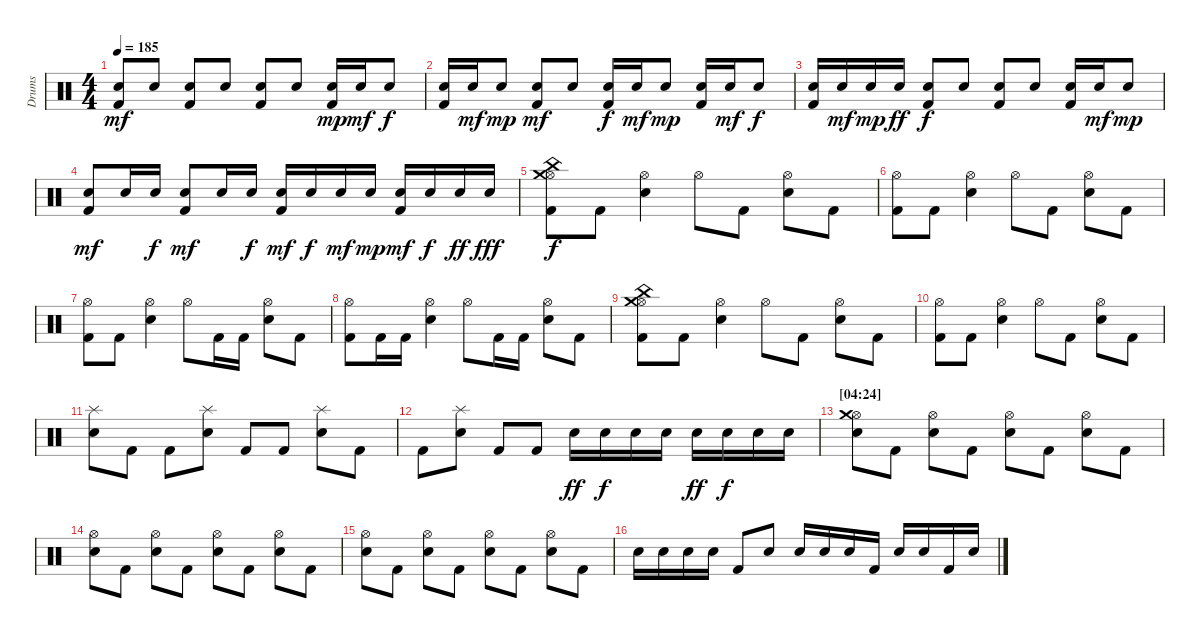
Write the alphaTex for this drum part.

\track ("Drums" "Drums") {instrument percussion}
\staff {score}
\articulation defaults
\ts (4 4)
\tempo 185
\clef neutral
\ks c
("Electric Snare (hit)" "Kick (hit) 2").8{dy mf} "Electric Snare (hit)".8 ("Electric Snare (hit)" "Kick (hit) 2").8 "Electric Snare (hit)".8 ("Electric Snare (hit)" "Kick (hit) 2").8 "Electric Snare (hit)".8 ("Electric Snare (hit)" "Kick (hit) 2").16{dy mp} "Electric Snare (hit)".16{dy mf} "Electric Snare (hit)".8{dy f} |
("Electric Snare (hit)" "Kick (hit) 2").16 "Electric Snare (hit)".16{dy mf} "Electric Snare (hit)".8{dy mp} ("Electric Snare (hit)" "Kick (hit) 2").8{dy mf} "Electric Snare (hit)".8 ("Electric Snare (hit)" "Kick (hit) 2").16{dy f} "Electric Snare (hit)".16{dy mf} "Electric Snare (hit)".8{dy mp} ("Electric Snare (hit)" "Kick (hit) 2").16 "Electric Snare (hit)".16{dy mf} "Electric Snare (hit)".8{dy f} |
("Electric Snare (hit)" "Kick (hit) 2").16 "Electric Snare (hit)".16{dy mf} "Snare (hit) 2".16{dy mp} "Electric Snare (hit)".16{dy ff} ("Electric Snare (hit)" "Kick (hit) 2").8{dy f} "Electric Snare (hit)".8 ("Electric Snare (hit)" "Kick (hit) 2").8 "Electric Snare (hit)".8 ("Electric Snare (hit)" "Kick (hit) 2").16 "Electric Snare (hit)".16{dy mf} "Electric Snare (hit)".8{dy mp} |
("Electric Snare (hit)" "Kick (hit) 2").8{dy mf} "Electric Snare (hit)".16 "Electric Snare (hit)".16{dy f} ("Electric Snare (hit)" "Kick (hit) 2").8{dy mf} "Electric Snare (hit)".16 "Electric Snare (hit)".16{dy f} ("Electric Snare (hit)" "Kick (hit) 2").16{dy mf} "Electric Snare (hit)".16{dy f} "Electric Snare (hit)".16{dy mf} "Snare (hit) 2".16{dy mp} ("Electric Snare (hit)" "Kick (hit) 2").16{dy mf} "Electric Snare (hit)".16{dy f} "Electric Snare (hit)".16{dy ff} "Electric Snare (hit)".16{dy fff} |
\section ("" "")
("Hi-Hat (open)" "Crash medium (hit)" "China (hit)" "Kick (hit) 2").8{dy f} "Kick (hit) 2".8 ("Hi-Hat (open)" "Electric Snare (hit)").4 "Hi-Hat (open)".8 "Kick (hit) 2".8 ("Hi-Hat (open)" "Electric Snare (hit)").8 "Kick (hit) 2".8 |
("Hi-Hat (open)" "Kick (hit) 2").8 "Kick (hit) 2".8 ("Hi-Hat (open)" "Electric Snare (hit)").4 "Hi-Hat (open)".8 "Kick (hit) 2".8 ("Hi-Hat (open)" "Electric Snare (hit)").8 "Kick (hit) 2".8 |
("Hi-Hat (open)" "Kick (hit) 2").8 "Kick (hit) 2".8 ("Hi-Hat (open)" "Electric Snare (hit)").4 "Hi-Hat (open)".8 "Kick (hit) 2".16 "Kick (hit) 2".16 ("Hi-Hat (open)" "Electric Snare (hit)").8 "Kick (hit) 2".8 |
("Hi-Hat (open)" "Kick (hit) 2").8 "Kick (hit) 2".16 "Kick (hit) 2".16 ("Hi-Hat (open)" "Electric Snare (hit)").4 "Hi-Hat (open)".8 "Kick (hit) 2".16 "Kick (hit) 2".16 ("Hi-Hat (open)" "Electric Snare (hit)").8 "Kick (hit) 2".8 |
("Hi-Hat (open)" "Crash medium (hit)" "China (hit)" "Kick (hit) 2").8 "Kick (hit) 2".8 ("Hi-Hat (open)" "Electric Snare (hit)").4 "Hi-Hat (open)".8 "Kick (hit) 2".8 ("Hi-Hat (open)" "Electric Snare (hit)").8 "Kick (hit) 2".8 |
("Hi-Hat (open)" "Kick (hit) 2").8 "Kick (hit) 2".8 ("Hi-Hat (open)" "Electric Snare (hit)").4 "Hi-Hat (open)".8 "Kick (hit) 2".8 ("Hi-Hat (open)" "Electric Snare (hit)").8 "Kick (hit) 2".8 |
("Splash (hit)" "Electric Snare (hit)").8 "Kick (hit) 2".8 "Kick (hit) 2".8 ("Splash (hit)" "Electric Snare (hit)").8 "Kick (hit) 2".8 "Kick (hit) 2".8 ("Splash (hit)" "Electric Snare (hit)").8 "Kick (hit) 2".8 |
"Kick (hit) 2".8 ("Splash (hit)" "Electric Snare (hit)").8 "Kick (hit) 2".8 "Kick (hit) 2".8 "Electric Snare (hit)".16{dy ff} "Electric Snare (hit)".16{dy f} "Electric Snare (hit)".16 "Electric Snare (hit)".16 "Electric Snare (hit)".16{dy ff} "Electric Snare (hit)".16{dy f} "Electric Snare (hit)".16 "Electric Snare (hit)".16 |
\section ("" "[04:24]")
("Hi-Hat (open)" "Crash medium (hit)" "Electric Snare (hit)").8 "Kick (hit) 2".8 ("Hi-Hat (open)" "Electric Snare (hit)").8 "Kick (hit) 2".8 ("Hi-Hat (open)" "Electric Snare (hit)").8 "Kick (hit) 2".8 ("Hi-Hat (open)" "Electric Snare (hit)").8 "Kick (hit) 2".8 |
("Hi-Hat (open)" "Electric Snare (hit)").8 "Kick (hit) 2".8 ("Hi-Hat (open)" "Electric Snare (hit)").8 "Kick (hit) 2".8 ("Hi-Hat (open)" "Electric Snare (hit)").8 "Kick (hit) 2".8 ("Hi-Hat (open)" "Electric Snare (hit)").8 "Kick (hit) 2".8 |
("Hi-Hat (open)" "Electric Snare (hit)").8 "Kick (hit) 2".8 ("Hi-Hat (open)" "Electric Snare (hit)").8 "Kick (hit) 2".8 ("Hi-Hat (open)" "Electric Snare (hit)").8 "Kick (hit) 2".8 ("Hi-Hat (open)" "Electric Snare (hit)").8 "Kick (hit) 2".8 |
"Electric Snare (hit)".16 "Electric Snare (hit)".16 "Electric Snare (hit)".16 "Electric Snare (hit)".16 "Kick (hit) 2".8 "Electric Snare (hit)".8 "Electric Snare (hit)".16 "Electric Snare (hit)".16 "Electric Snare (hit)".16 "Kick (hit) 2".16 "Electric Snare (hit)".16 "Electric Snare (hit)".16 "Kick (hit) 2".16 "Electric Snare (hit)".16
